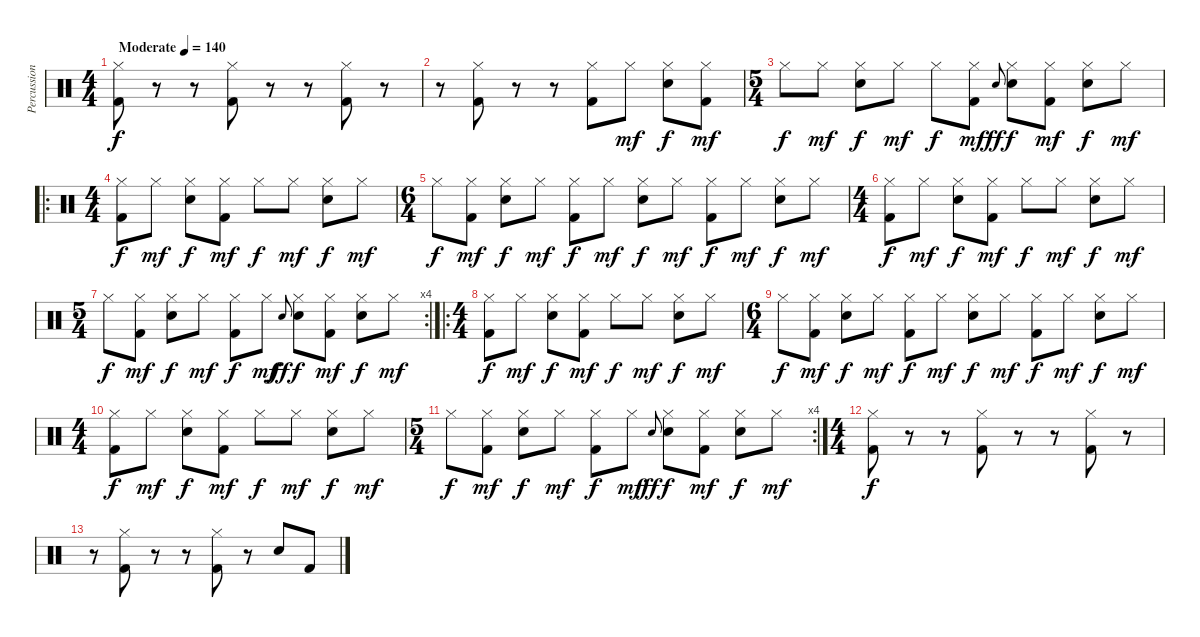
\track ("Percussion" "Percussion") {instrument percussion}
\staff {score}
\articulation defaults
\ts (4 4)
\tempo (140 "Moderate")
\clef neutral
\ks c
("Hi-Hat (closed)" "Kick (hit) 2").8{dy f} r.8 r.8 ("Hi-Hat (closed)" "Kick (hit) 2").8 r.8 r.8 ("Hi-Hat (closed)" "Kick (hit) 2").8 r.8 |
r.8 ("Hi-Hat (closed)" "Kick (hit) 2").8 r.8 r.8 ("Hi-Hat (closed)" "Kick (hit) 2").8 "Hi-Hat (closed)".8{dy mf} ("Hi-Hat (closed)" "Electric Snare (hit)").8{dy f} ("Hi-Hat (closed)" "Kick (hit) 2").8{dy mf} |
\ts (5 4)
"Hi-Hat (closed)".8{dy f} "Hi-Hat (closed)".8{dy mf} ("Hi-Hat (closed)" "Electric Snare (hit)").8{dy f} "Hi-Hat (closed)".8{dy mf} "Hi-Hat (closed)".8{dy f} ("Hi-Hat (closed)" "Kick (hit) 2").8{dy mf} "Electric Snare (hit)"{x}.8{gr onbeat dy ff} ("Hi-Hat (closed)" "Electric Snare (hit)").8{dy f} ("Hi-Hat (closed)" "Kick (hit) 2").8{dy mf} ("Hi-Hat (closed)" "Electric Snare (hit)").8{dy f} "Hi-Hat (closed)".8{dy mf} |
\ro
\ts (4 4)
("Hi-Hat (closed)" "Kick (hit) 2").8{dy f} "Hi-Hat (closed)".8{dy mf} ("Hi-Hat (closed)" "Electric Snare (hit)").8{dy f} ("Hi-Hat (closed)" "Kick (hit) 2").8{dy mf} "Hi-Hat (closed)".8{dy f} "Hi-Hat (closed)".8{dy mf} ("Hi-Hat (closed)" "Electric Snare (hit)").8{dy f} "Hi-Hat (closed)".8{dy mf} |
\ts (6 4)
"Hi-Hat (closed)".8{dy f} ("Hi-Hat (closed)" "Kick (hit) 2").8{dy mf} ("Hi-Hat (closed)" "Electric Snare (hit)").8{dy f} "Hi-Hat (closed)".8{dy mf} ("Hi-Hat (closed)" "Kick (hit) 2").8{dy f} "Hi-Hat (closed)".8{dy mf} ("Hi-Hat (closed)" "Electric Snare (hit)").8{dy f} "Hi-Hat (closed)".8{dy mf} ("Hi-Hat (closed)" "Kick (hit) 2").8{dy f} "Hi-Hat (closed)".8{dy mf} ("Hi-Hat (closed)" "Electric Snare (hit)").8{dy f} "Hi-Hat (closed)".8{dy mf} |
\ts (4 4)
("Hi-Hat (closed)" "Kick (hit) 2").8{dy f} "Hi-Hat (closed)".8{dy mf} ("Hi-Hat (closed)" "Electric Snare (hit)").8{dy f} ("Hi-Hat (closed)" "Kick (hit) 2").8{dy mf} "Hi-Hat (closed)".8{dy f} "Hi-Hat (closed)".8{dy mf} ("Hi-Hat (closed)" "Electric Snare (hit)").8{dy f} "Hi-Hat (closed)".8{dy mf} |
\rc 4
\ts (5 4)
"Hi-Hat (closed)".8{dy f} ("Hi-Hat (closed)" "Kick (hit) 2").8{dy mf} ("Hi-Hat (closed)" "Electric Snare (hit)").8{dy f} "Hi-Hat (closed)".8{dy mf} ("Hi-Hat (closed)" "Kick (hit) 2").8{dy f} "Hi-Hat (closed)".8{dy mf} "Electric Snare (hit)"{x}.8{gr onbeat dy ff} ("Hi-Hat (closed)" "Electric Snare (hit)").8{dy f} ("Hi-Hat (closed)" "Kick (hit) 2").8{dy mf} ("Hi-Hat (closed)" "Electric Snare (hit)").8{dy f} "Hi-Hat (closed)".8{dy mf} |
\ro
\ts (4 4)
("Hi-Hat (closed)" "Kick (hit) 2").8{dy f} "Hi-Hat (closed)".8{dy mf} ("Hi-Hat (closed)" "Electric Snare (hit)").8{dy f} ("Hi-Hat (closed)" "Kick (hit) 2").8{dy mf} "Hi-Hat (closed)".8{dy f} "Hi-Hat (closed)".8{dy mf} ("Hi-Hat (closed)" "Electric Snare (hit)").8{dy f} "Hi-Hat (closed)".8{dy mf} |
\ts (6 4)
"Hi-Hat (closed)".8{dy f} ("Hi-Hat (closed)" "Kick (hit) 2").8{dy mf} ("Hi-Hat (closed)" "Electric Snare (hit)").8{dy f} "Hi-Hat (closed)".8{dy mf} ("Hi-Hat (closed)" "Kick (hit) 2").8{dy f} "Hi-Hat (closed)".8{dy mf} ("Hi-Hat (closed)" "Electric Snare (hit)").8{dy f} "Hi-Hat (closed)".8{dy mf} ("Hi-Hat (closed)" "Kick (hit) 2").8{dy f} "Hi-Hat (closed)".8{dy mf} ("Hi-Hat (closed)" "Electric Snare (hit)").8{dy f} "Hi-Hat (closed)".8{dy mf} |
\ts (4 4)
("Hi-Hat (closed)" "Kick (hit) 2").8{dy f} "Hi-Hat (closed)".8{dy mf} ("Hi-Hat (closed)" "Electric Snare (hit)").8{dy f} ("Hi-Hat (closed)" "Kick (hit) 2").8{dy mf} "Hi-Hat (closed)".8{dy f} "Hi-Hat (closed)".8{dy mf} ("Hi-Hat (closed)" "Electric Snare (hit)").8{dy f} "Hi-Hat (closed)".8{dy mf} |
\rc 4
\ts (5 4)
"Hi-Hat (closed)".8{dy f} ("Hi-Hat (closed)" "Kick (hit) 2").8{dy mf} ("Hi-Hat (closed)" "Electric Snare (hit)").8{dy f} "Hi-Hat (closed)".8{dy mf} ("Hi-Hat (closed)" "Kick (hit) 2").8{dy f} "Hi-Hat (closed)".8{dy mf} "Electric Snare (hit)"{x}.8{gr onbeat dy ff} ("Hi-Hat (closed)" "Electric Snare (hit)").8{dy f} ("Hi-Hat (closed)" "Kick (hit) 2").8{dy mf} ("Hi-Hat (closed)" "Electric Snare (hit)").8{dy f} "Hi-Hat (closed)".8{dy mf} |
\ts (4 4)
("Hi-Hat (closed)" "Kick (hit) 2").8{dy f} r.8 r.8 ("Hi-Hat (closed)" "Kick (hit) 2").8 r.8 r.8 ("Hi-Hat (closed)" "Kick (hit) 2").8 r.8 |
r.8 ("Hi-Hat (closed)" "Kick (hit) 2").8 r.8 r.8 ("Hi-Hat (closed)" "Kick (hit) 2").8 r.8 "Electric Snare (hit)".8 "Kick (hit) 2".8
